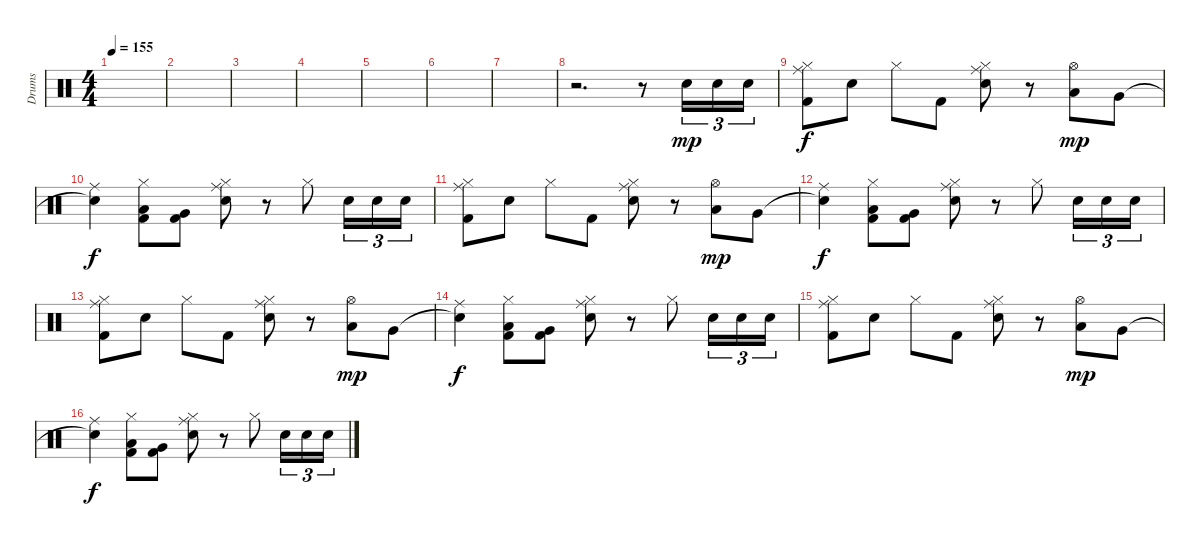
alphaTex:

\track ("Drums" "Drums") {instrument percussion}
\staff {score}
\articulation defaults
\ts (4 4)
\tempo 155
\clef neutral
\ks c
|
|
|
|
|
|
|
r.2{d} r.8 "Electric Snare (hit)".16{tu (3 2) dy mp} "Electric Snare (hit)".16{tu (3 2)} "Electric Snare (hit)".16{tu (3 2)} |
("Hi-Hat (closed)" "Ride (middle)" "Kick (hit) 2").8{dy f} "Electric Snare (hit)".8 "Hi-Hat (closed)".8 "Kick (hit) 2".8 ("Hi-Hat (closed)" "Ride (middle)" "Electric Snare (hit)").8 r.8 ("Hi-Hat (open)" "Low Tom (hit)").8{dy mp} "Very Low Tom (hit)".8 |
("Snare (hit)"{t} "Ride (middle)").4{dy f} ("Hi-Hat (closed)" "Low Tom (hit)" "Kick (hit) 2").8 ("Very Low Tom (hit)" "Kick (hit) 2").8 ("Hi-Hat (closed)" "Ride (middle)" "Electric Snare (hit)").8 r.8 "Hi-Hat (closed)".8 "Electric Snare (hit)".16{tu (3 2)} "Electric Snare (hit)".16{tu (3 2)} "Electric Snare (hit)".16{tu (3 2)} |
("Hi-Hat (closed)" "Ride (middle)" "Kick (hit) 2").8 "Electric Snare (hit)".8 "Hi-Hat (closed)".8 "Kick (hit) 2".8 ("Hi-Hat (closed)" "Ride (middle)" "Electric Snare (hit)").8 r.8 ("Hi-Hat (open)" "Low Tom (hit)").8{dy mp} "Very Low Tom (hit)".8 |
("Snare (hit)"{t} "Ride (middle)").4{dy f} ("Hi-Hat (closed)" "Low Tom (hit)" "Kick (hit) 2").8 ("Very Low Tom (hit)" "Kick (hit) 2").8 ("Hi-Hat (closed)" "Ride (middle)" "Electric Snare (hit)").8 r.8 "Hi-Hat (closed)".8 "Electric Snare (hit)".16{tu (3 2)} "Electric Snare (hit)".16{tu (3 2)} "Electric Snare (hit)".16{tu (3 2)} |
("Hi-Hat (closed)" "Ride (middle)" "Kick (hit) 2").8 "Electric Snare (hit)".8 "Hi-Hat (closed)".8 "Kick (hit) 2".8 ("Hi-Hat (closed)" "Ride (middle)" "Electric Snare (hit)").8 r.8 ("Hi-Hat (open)" "Low Tom (hit)").8{dy mp} "Very Low Tom (hit)".8 |
("Snare (hit)"{t} "Ride (middle)").4{dy f} ("Hi-Hat (closed)" "Low Tom (hit)" "Kick (hit) 2").8 ("Very Low Tom (hit)" "Kick (hit) 2").8 ("Hi-Hat (closed)" "Ride (middle)" "Electric Snare (hit)").8 r.8 "Hi-Hat (closed)".8 "Electric Snare (hit)".16{tu (3 2)} "Electric Snare (hit)".16{tu (3 2)} "Electric Snare (hit)".16{tu (3 2)} |
("Hi-Hat (closed)" "Ride (middle)" "Kick (hit) 2").8 "Electric Snare (hit)".8 "Hi-Hat (closed)".8 "Kick (hit) 2".8 ("Hi-Hat (closed)" "Ride (middle)" "Electric Snare (hit)").8 r.8 ("Hi-Hat (open)" "Low Tom (hit)").8{dy mp} "Very Low Tom (hit)".8 |
("Snare (hit)"{t} "Ride (middle)").4{dy f} ("Hi-Hat (closed)" "Low Tom (hit)" "Kick (hit) 2").8 ("Very Low Tom (hit)" "Kick (hit) 2").8 ("Hi-Hat (closed)" "Ride (middle)" "Electric Snare (hit)").8 r.8 "Hi-Hat (closed)".8 "Electric Snare (hit)".16{tu (3 2)} "Electric Snare (hit)".16{tu (3 2)} "Electric Snare (hit)".16{tu (3 2)}
